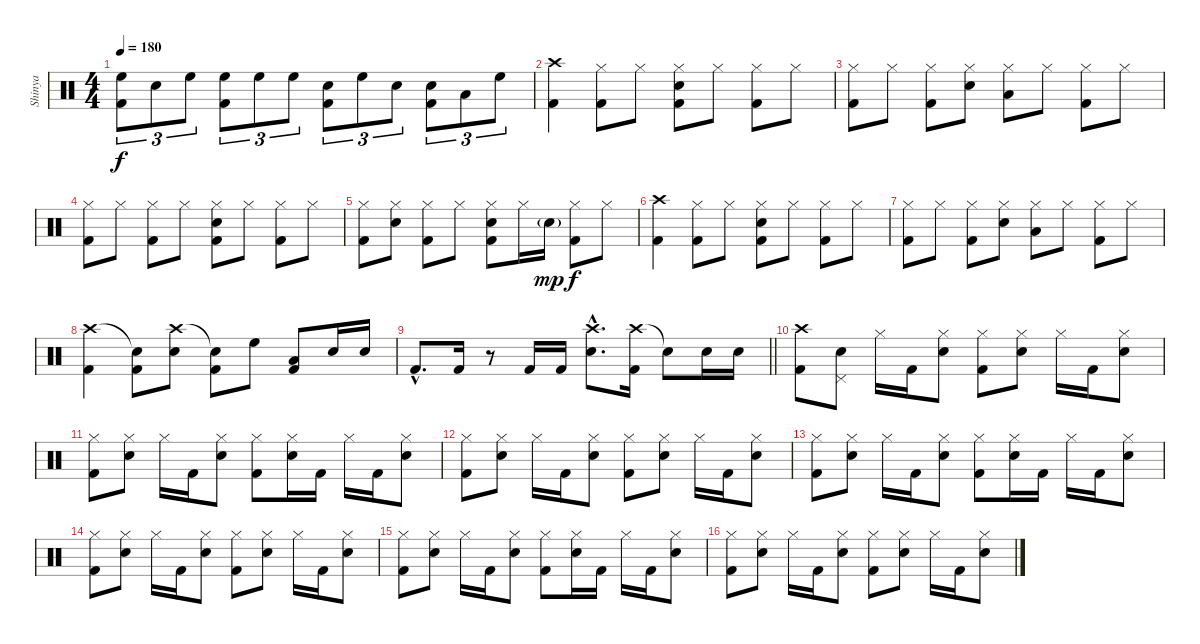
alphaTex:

\track ("Shinya" "Shinya") {instrument percussion}
\staff {score}
\articulation defaults
\ts (4 4)
\tempo 180
\clef neutral
\ks c
("High Floor Tom (hit)" "Kick (hit) 2").8{tu (3 2) dy f} "Electric Snare (hit)".8{tu (3 2)} "High Floor Tom (hit)".8{tu (3 2)} ("High Floor Tom (hit)" "Kick (hit) 2").8{tu (3 2)} "High Floor Tom (hit)".8{tu (3 2)} "High Floor Tom (hit)".8{tu (3 2)} ("Electric Snare (hit)" "Kick (hit) 2").8{tu (3 2)} "High Floor Tom (hit)".8{tu (3 2)} "Electric Snare (hit)".8{tu (3 2)} ("Electric Snare (hit)" "Kick (hit) 2").8{tu (3 2)} "Low Tom (hit)".8{tu (3 2)} "High Floor Tom (hit)".8{tu (3 2)} |
("Crash high (hit)" "Kick (hit) 2").4 ("Hi-Hat (closed)" "Kick (hit) 2").8 "Hi-Hat (closed)".8 ("Hi-Hat (closed)" "Electric Snare (hit)" "Kick (hit) 2").8 "Hi-Hat (closed)".8 ("Hi-Hat (closed)" "Kick (hit) 2").8 "Hi-Hat (closed)".8 |
("Hi-Hat (closed)" "Kick (hit) 2").8 "Hi-Hat (closed)".8 ("Hi-Hat (closed)" "Kick (hit) 2").8 ("Hi-Hat (closed)" "Electric Snare (hit)").8 ("Hi-Hat (closed)" "Low Tom (hit)").8 "Hi-Hat (closed)".8 ("Hi-Hat (closed)" "Kick (hit) 2").8 "Hi-Hat (closed)".8 |
("Hi-Hat (closed)" "Kick (hit) 2").8 "Hi-Hat (closed)".8 ("Hi-Hat (closed)" "Kick (hit) 2").8 "Hi-Hat (closed)".8 ("Hi-Hat (closed)" "Electric Snare (hit)" "Kick (hit) 2").8 "Hi-Hat (closed)".8 ("Hi-Hat (closed)" "Kick (hit) 2").8 "Hi-Hat (closed)".8 |
("Hi-Hat (closed)" "Kick (hit) 2").8 ("Hi-Hat (closed)" "Electric Snare (hit)").8 ("Hi-Hat (closed)" "Kick (hit) 2").8 "Hi-Hat (closed)".8 ("Hi-Hat (closed)" "Electric Snare (hit)" "Kick (hit) 2").8 "Hi-Hat (closed)".16 "Electric Snare (hit)"{g}.16{dy mp} ("Hi-Hat (closed)" "Kick (hit) 2").8{dy f} "Hi-Hat (closed)".8 |
("Crash high (hit)" "Kick (hit) 2").4 ("Hi-Hat (closed)" "Kick (hit) 2").8 "Hi-Hat (closed)".8 ("Hi-Hat (closed)" "Electric Snare (hit)" "Kick (hit) 2").8 "Hi-Hat (closed)".8 ("Hi-Hat (closed)" "Kick (hit) 2").8 "Hi-Hat (closed)".8 |
("Hi-Hat (closed)" "Kick (hit) 2").8 "Hi-Hat (closed)".8 ("Hi-Hat (closed)" "Kick (hit) 2").8 ("Hi-Hat (closed)" "Electric Snare (hit)").8 ("Hi-Hat (closed)" "Low Tom (hit)").8 "Hi-Hat (closed)".8 ("Hi-Hat (closed)" "Kick (hit) 2").8 "Hi-Hat (closed)".8 |
("Crash high (hit)" "Kick (hit) 2").4 ("Snare (hit)"{t} "Kick (hit) 2").8 ("Crash high (hit)" "Electric Snare (hit)").8 ("Snare (hit)"{t} "Kick (hit) 2").8 "High Floor Tom (hit)".8 ("Low Tom (hit)" "Kick (hit) 2").8 "Electric Snare (hit)".16 "Electric Snare (hit)".16 |
\barLineRight lightlight "Kick (hit) 2"{hac}.8{d} "Kick (hit) 2".16
r.8 "Kick (hit) 2".16 "Kick (hit) 2".16 ("Crash high (hit)"{hac} "Electric Snare (hit)"{hac}).8{d} ("Crash high (hit)" "Kick (hit) 2").16 "Snare (hit)"{t}.8 "Electric Snare (hit)".16 "Electric Snare (hit)".16 |
("Crash high (hit)" "Kick (hit) 2").8 ("Pedal Hi-Hat (hit)" "Electric Snare (hit)").8 "Hi-Hat (closed)".16 "Kick (hit) 2".16 ("Hi-Hat (closed)" "Electric Snare (hit)").8 ("Hi-Hat (closed)" "Kick (hit) 2").8 ("Hi-Hat (closed)" "Electric Snare (hit)").8 "Hi-Hat (closed)".16 "Kick (hit) 2".16 ("Hi-Hat (closed)" "Electric Snare (hit)").8 |
("Hi-Hat (closed)" "Kick (hit) 2").8 ("Hi-Hat (closed)" "Electric Snare (hit)").8 "Hi-Hat (closed)".16 "Kick (hit) 2".16 ("Hi-Hat (closed)" "Electric Snare (hit)").8 ("Hi-Hat (closed)" "Kick (hit) 2").8 ("Hi-Hat (closed)" "Electric Snare (hit)").16 "Kick (hit) 2".16 "Hi-Hat (closed)".16 "Kick (hit) 2".16 ("Hi-Hat (closed)" "Electric Snare (hit)").8 |
("Hi-Hat (closed)" "Kick (hit) 2").8 ("Hi-Hat (closed)" "Electric Snare (hit)").8 "Hi-Hat (closed)".16 "Kick (hit) 2".16 ("Hi-Hat (closed)" "Electric Snare (hit)").8 ("Hi-Hat (closed)" "Kick (hit) 2").8 ("Hi-Hat (closed)" "Electric Snare (hit)").8 "Hi-Hat (closed)".16 "Kick (hit) 2".16 ("Hi-Hat (closed)" "Electric Snare (hit)").8 |
("Hi-Hat (closed)" "Kick (hit) 2").8 ("Hi-Hat (closed)" "Electric Snare (hit)").8 "Hi-Hat (closed)".16 "Kick (hit) 2".16 ("Hi-Hat (closed)" "Electric Snare (hit)").8 ("Hi-Hat (closed)" "Kick (hit) 2").8 ("Hi-Hat (closed)" "Electric Snare (hit)").16 "Kick (hit) 2".16 "Hi-Hat (closed)".16 "Kick (hit) 2".16 ("Hi-Hat (closed)" "Electric Snare (hit)").8 |
("Hi-Hat (closed)" "Kick (hit) 2").8 ("Hi-Hat (closed)" "Electric Snare (hit)").8 "Hi-Hat (closed)".16 "Kick (hit) 2".16 ("Hi-Hat (closed)" "Electric Snare (hit)").8 ("Hi-Hat (closed)" "Kick (hit) 2").8 ("Hi-Hat (closed)" "Electric Snare (hit)").8 "Hi-Hat (closed)".16 "Kick (hit) 2".16 ("Hi-Hat (closed)" "Electric Snare (hit)").8 |
("Hi-Hat (closed)" "Kick (hit) 2").8 ("Hi-Hat (closed)" "Electric Snare (hit)").8 "Hi-Hat (closed)".16 "Kick (hit) 2".16 ("Hi-Hat (closed)" "Electric Snare (hit)").8 ("Hi-Hat (closed)" "Kick (hit) 2").8 ("Hi-Hat (closed)" "Electric Snare (hit)").16 "Kick (hit) 2".16 "Hi-Hat (closed)".16 "Kick (hit) 2".16 ("Hi-Hat (closed)" "Electric Snare (hit)").8 |
("Hi-Hat (closed)" "Kick (hit) 2").8 ("Hi-Hat (closed)" "Electric Snare (hit)").8 "Hi-Hat (closed)".16 "Kick (hit) 2".16 ("Hi-Hat (closed)" "Electric Snare (hit)").8 ("Hi-Hat (closed)" "Kick (hit) 2").8 ("Hi-Hat (closed)" "Electric Snare (hit)").8 "Hi-Hat (closed)".16 "Kick (hit) 2".16 ("Hi-Hat (closed)" "Electric Snare (hit)").8
